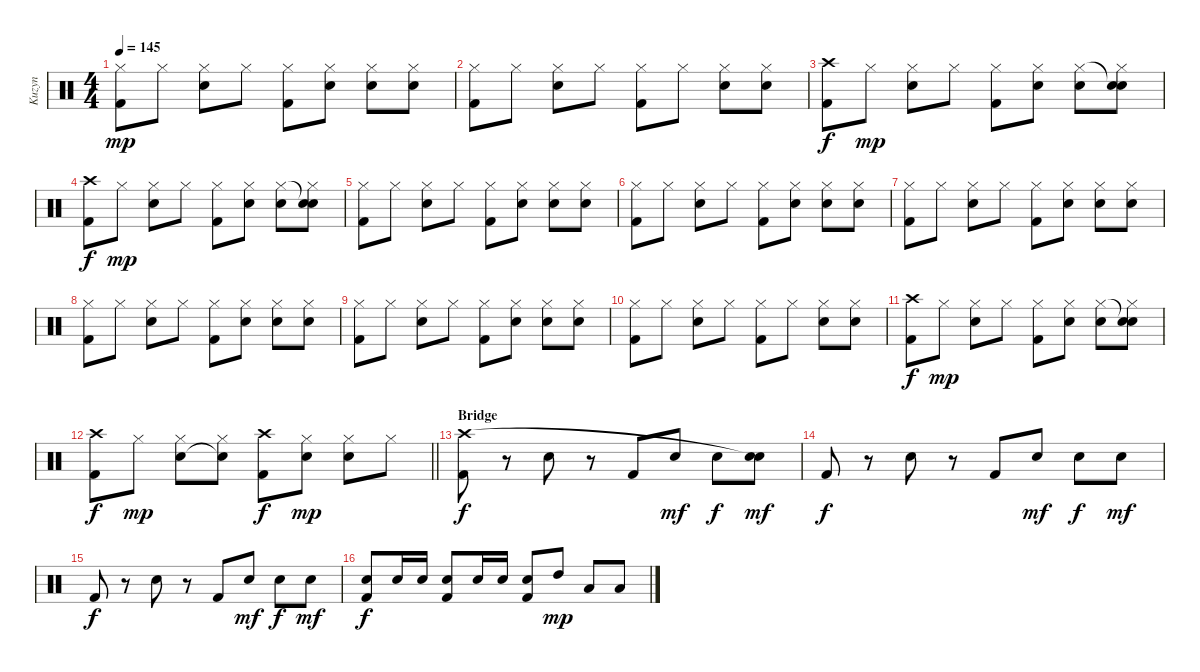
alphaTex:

\track ("Kuzyn" "Kuzyn") {instrument percussion}
\staff {score}
\articulation defaults
\ts (4 4)
\tempo 145
\clef neutral
\ks c
("Kick (hit) 2" "Hi-Hat (closed)").8{dy mp} "Hi-Hat (closed)".8 ("Snare (hit) 2" "Hi-Hat (closed)").8 "Hi-Hat (closed)".8 ("Kick (hit) 2" "Hi-Hat (closed)").8 ("Snare (hit) 2" "Hi-Hat (closed)").8 ("Snare (hit) 2" "Hi-Hat (closed)").8 ("Snare (hit) 2" "Hi-Hat (closed)").8 |
("Kick (hit) 2" "Hi-Hat (closed)").8 "Hi-Hat (closed)".8 ("Snare (hit) 2" "Hi-Hat (closed)").8 "Hi-Hat (closed)".8 ("Kick (hit) 2" "Hi-Hat (closed)").8 "Hi-Hat (closed)".8 ("Snare (hit) 2" "Hi-Hat (closed)").8 ("Snare (hit) 2" "Hi-Hat (closed)").8 |
("Kick (hit) 2" "Crash high (hit)").8{dy f} "Hi-Hat (closed)".8{dy mp} ("Snare (hit) 2" "Hi-Hat (closed)").8 "Hi-Hat (closed)".8 ("Kick (hit) 2" "Hi-Hat (closed)").8 ("Snare (hit) 2" "Hi-Hat (closed)").8 ("Snare (hit) 2" "Hi-Hat (closed)").8 ("Snare (hit) 2" "Snare (hit)"{t} "Hi-Hat (closed)").8 |
("Kick (hit) 2" "Crash high (hit)").8{dy f} "Hi-Hat (closed)".8{dy mp} ("Snare (hit) 2" "Hi-Hat (closed)").8 "Hi-Hat (closed)".8 ("Kick (hit) 2" "Hi-Hat (closed)").8 ("Snare (hit) 2" "Hi-Hat (closed)").8 ("Snare (hit) 2" "Hi-Hat (closed)").8 ("Snare (hit) 2" "Snare (hit)"{t} "Hi-Hat (closed)").8 |
("Kick (hit) 2" "Hi-Hat (closed)").8 "Hi-Hat (closed)".8 ("Snare (hit) 2" "Hi-Hat (closed)").8 "Hi-Hat (closed)".8 ("Kick (hit) 2" "Hi-Hat (closed)").8 ("Snare (hit) 2" "Hi-Hat (closed)").8 ("Snare (hit) 2" "Hi-Hat (closed)").8 ("Snare (hit) 2" "Hi-Hat (closed)").8 |
("Kick (hit) 2" "Hi-Hat (closed)").8 "Hi-Hat (closed)".8 ("Snare (hit) 2" "Hi-Hat (closed)").8 "Hi-Hat (closed)".8 ("Kick (hit) 2" "Hi-Hat (closed)").8 ("Snare (hit) 2" "Hi-Hat (closed)").8 ("Snare (hit) 2" "Hi-Hat (closed)").8 ("Snare (hit) 2" "Hi-Hat (closed)").8 |
("Kick (hit) 2" "Hi-Hat (closed)").8 "Hi-Hat (closed)".8 ("Snare (hit) 2" "Hi-Hat (closed)").8 "Hi-Hat (closed)".8 ("Kick (hit) 2" "Hi-Hat (closed)").8 ("Snare (hit) 2" "Hi-Hat (closed)").8 ("Snare (hit) 2" "Hi-Hat (closed)").8 ("Snare (hit) 2" "Hi-Hat (closed)").8 |
("Kick (hit) 2" "Hi-Hat (closed)").8 "Hi-Hat (closed)".8 ("Snare (hit) 2" "Hi-Hat (closed)").8 "Hi-Hat (closed)".8 ("Kick (hit) 2" "Hi-Hat (closed)").8 ("Snare (hit) 2" "Hi-Hat (closed)").8 ("Snare (hit) 2" "Hi-Hat (closed)").8 ("Snare (hit) 2" "Hi-Hat (closed)").8 |
("Kick (hit) 2" "Hi-Hat (closed)").8 "Hi-Hat (closed)".8 ("Snare (hit) 2" "Hi-Hat (closed)").8 "Hi-Hat (closed)".8 ("Kick (hit) 2" "Hi-Hat (closed)").8 ("Snare (hit) 2" "Hi-Hat (closed)").8 ("Snare (hit) 2" "Hi-Hat (closed)").8 ("Snare (hit) 2" "Hi-Hat (closed)").8 |
("Kick (hit) 2" "Hi-Hat (closed)").8 "Hi-Hat (closed)".8 ("Snare (hit) 2" "Hi-Hat (closed)").8 "Hi-Hat (closed)".8 ("Kick (hit) 2" "Hi-Hat (closed)").8 "Hi-Hat (closed)".8 ("Snare (hit) 2" "Hi-Hat (closed)").8 ("Snare (hit) 2" "Hi-Hat (closed)").8 |
("Kick (hit) 2" "Crash high (hit)").8{dy f} "Hi-Hat (closed)".8{dy mp} ("Snare (hit) 2" "Hi-Hat (closed)").8 "Hi-Hat (closed)".8 ("Kick (hit) 2" "Hi-Hat (closed)").8 ("Snare (hit) 2" "Hi-Hat (closed)").8 ("Snare (hit) 2" "Hi-Hat (closed)").8 ("Snare (hit) 2" "Snare (hit)"{t} "Hi-Hat (closed)").8 |
\barLineRight lightlight
("Kick (hit) 2" "Crash high (hit)").8{dy f} "Hi-Hat (closed)".8{dy mp} ("Snare (hit) 2" "Hi-Hat (closed)").8 ("Snare (hit)"{t} "Hi-Hat (closed)").8 ("Kick (hit) 2" "Crash high (hit)").8{dy f} ("Snare (hit) 2" "Hi-Hat (closed)").8{dy mp} ("Snare (hit) 2" "Hi-Hat (closed)").8 "Hi-Hat (closed)".8 |
\section ("" "Bridge")
("Kick (hit) 2" "Crash high (hit)").8{dy f} r.8 "Snare (hit) 2".8 r.8 "Kick (hit) 2".8 "Snare (hit) 2".8{dy mf} "Snare (hit) 2".8{dy f} ("Snare (hit) 2" "Snare (hit)"{t}).8{dy mf} |
"Kick (hit) 2".8{dy f} r.8 "Snare (hit) 2".8 r.8 "Kick (hit) 2".8 "Snare (hit) 2".8{dy mf} "Snare (hit) 2".8{dy f} "Snare (hit) 2".8{dy mf} |
"Kick (hit) 2".8{dy f} r.8 "Snare (hit) 2".8 r.8 "Kick (hit) 2".8 "Snare (hit) 2".8{dy mf} "Snare (hit) 2".8{dy f} "Snare (hit) 2".8{dy mf} |
("Snare (hit) 2" "Kick (hit) 2").8{dy f} "Snare (hit) 2".16 "Snare (hit) 2".16 ("Snare (hit) 2" "Kick (hit) 2").8 "Snare (hit) 2".16 "Snare (hit) 2".16 ("Snare (hit) 2" "Kick (hit) 2").8 "High Tom (hit)".8{dy mp} "Low Tom (hit)".8 "Low Tom (hit)".8
